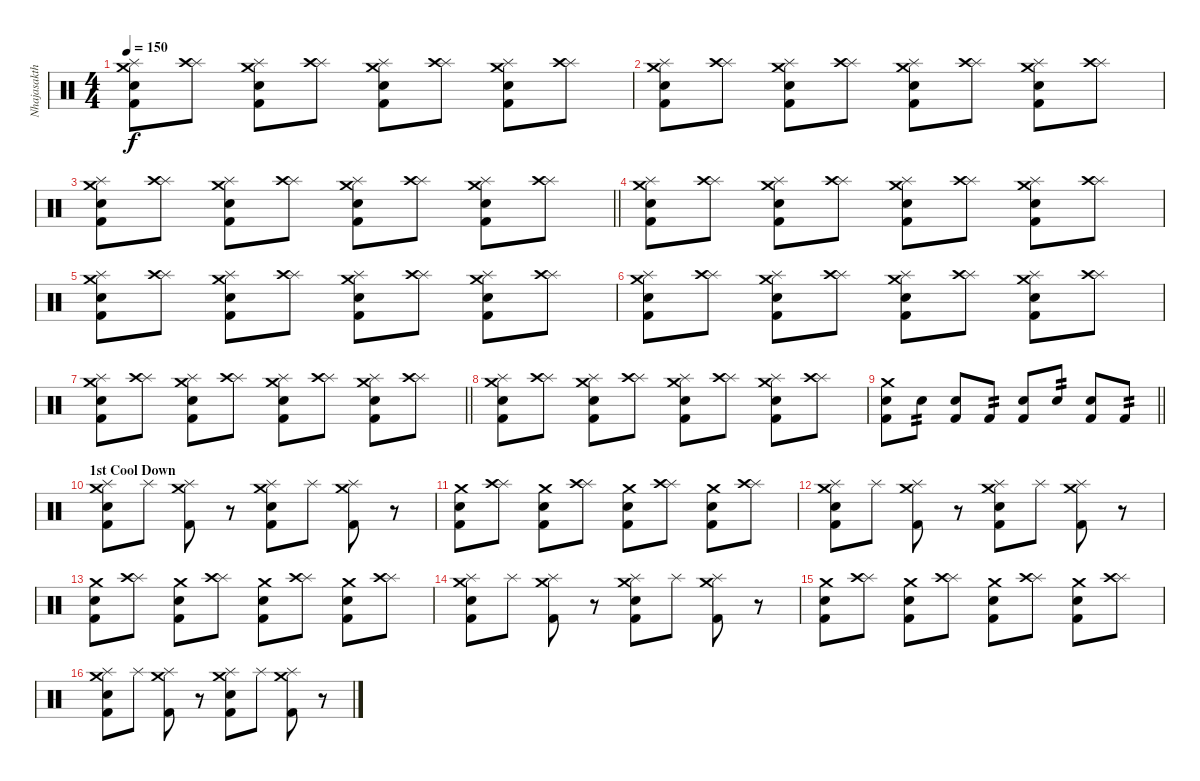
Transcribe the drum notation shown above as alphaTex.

\track ("Nhajasakthee" "Nhajasakth") {instrument percussion}
\staff {score}
\articulation defaults
\ts (4 4)
\tempo 150
\clef neutral
\ks c
("Splash (hit)" "Crash medium (hit)" "Kick (hit) 2" "Electric Snare (hit)").8{dy f} ("Splash (hit)" "Crash high (hit)").8 ("Splash (hit)" "Crash medium (hit)" "Kick (hit) 2" "Electric Snare (hit)").8 ("Splash (hit)" "Crash high (hit)").8 ("Splash (hit)" "Crash medium (hit)" "Kick (hit) 2" "Electric Snare (hit)").8 ("Splash (hit)" "Crash high (hit)").8 ("Splash (hit)" "Crash medium (hit)" "Kick (hit) 2" "Electric Snare (hit)").8 ("Splash (hit)" "Crash high (hit)").8 |
("Splash (hit)" "Crash medium (hit)" "Kick (hit) 2" "Electric Snare (hit)").8 ("Splash (hit)" "Crash high (hit)").8 ("Splash (hit)" "Crash medium (hit)" "Kick (hit) 2" "Electric Snare (hit)").8 ("Splash (hit)" "Crash high (hit)").8 ("Splash (hit)" "Crash medium (hit)" "Kick (hit) 2" "Electric Snare (hit)").8 ("Splash (hit)" "Crash high (hit)").8 ("Splash (hit)" "Crash medium (hit)" "Kick (hit) 2" "Electric Snare (hit)").8 ("Splash (hit)" "Crash high (hit)").8 |
\barLineRight lightlight
("Splash (hit)" "Crash medium (hit)" "Kick (hit) 2" "Electric Snare (hit)").8 ("Splash (hit)" "Crash high (hit)").8 ("Splash (hit)" "Crash medium (hit)" "Kick (hit) 2" "Electric Snare (hit)").8 ("Splash (hit)" "Crash high (hit)").8 ("Splash (hit)" "Crash medium (hit)" "Kick (hit) 2" "Electric Snare (hit)").8 ("Splash (hit)" "Crash high (hit)").8 ("Splash (hit)" "Crash medium (hit)" "Kick (hit) 2" "Electric Snare (hit)").8 ("Splash (hit)" "Crash high (hit)").8 |
("Splash (hit)" "Crash medium (hit)" "Kick (hit) 2" "Electric Snare (hit)").8 ("Splash (hit)" "Crash high (hit)").8 ("Splash (hit)" "Crash medium (hit)" "Kick (hit) 2" "Electric Snare (hit)").8 ("Splash (hit)" "Crash high (hit)").8 ("Splash (hit)" "Crash medium (hit)" "Kick (hit) 2" "Electric Snare (hit)").8 ("Splash (hit)" "Crash high (hit)").8 ("Splash (hit)" "Crash medium (hit)" "Kick (hit) 2" "Electric Snare (hit)").8 ("Splash (hit)" "Crash high (hit)").8 |
("Splash (hit)" "Crash medium (hit)" "Kick (hit) 2" "Electric Snare (hit)").8 ("Splash (hit)" "Crash high (hit)").8 ("Splash (hit)" "Crash medium (hit)" "Kick (hit) 2" "Electric Snare (hit)").8 ("Splash (hit)" "Crash high (hit)").8 ("Splash (hit)" "Crash medium (hit)" "Kick (hit) 2" "Electric Snare (hit)").8 ("Splash (hit)" "Crash high (hit)").8 ("Splash (hit)" "Crash medium (hit)" "Kick (hit) 2" "Electric Snare (hit)").8 ("Splash (hit)" "Crash high (hit)").8 |
("Splash (hit)" "Crash medium (hit)" "Kick (hit) 2" "Electric Snare (hit)").8 ("Splash (hit)" "Crash high (hit)").8 ("Splash (hit)" "Crash medium (hit)" "Kick (hit) 2" "Electric Snare (hit)").8 ("Splash (hit)" "Crash high (hit)").8 ("Splash (hit)" "Crash medium (hit)" "Kick (hit) 2" "Electric Snare (hit)").8 ("Splash (hit)" "Crash high (hit)").8 ("Splash (hit)" "Crash medium (hit)" "Kick (hit) 2" "Electric Snare (hit)").8 ("Splash (hit)" "Crash high (hit)").8 |
\barLineRight lightlight
("Splash (hit)" "Crash medium (hit)" "Kick (hit) 2" "Electric Snare (hit)").8 ("Splash (hit)" "Crash high (hit)").8 ("Splash (hit)" "Crash medium (hit)" "Kick (hit) 2" "Electric Snare (hit)").8 ("Splash (hit)" "Crash high (hit)").8 ("Splash (hit)" "Crash medium (hit)" "Kick (hit) 2" "Electric Snare (hit)").8 ("Splash (hit)" "Crash high (hit)").8 ("Splash (hit)" "Crash medium (hit)" "Kick (hit) 2" "Electric Snare (hit)").8 ("Splash (hit)" "Crash high (hit)").8 |
("Splash (hit)" "Crash medium (hit)" "Kick (hit) 2" "Electric Snare (hit)").8 ("Splash (hit)" "Crash high (hit)").8 ("Splash (hit)" "Crash medium (hit)" "Kick (hit) 2" "Electric Snare (hit)").8 ("Splash (hit)" "Crash high (hit)").8 ("Splash (hit)" "Crash medium (hit)" "Kick (hit) 2" "Electric Snare (hit)").8 ("Splash (hit)" "Crash high (hit)").8 ("Splash (hit)" "Crash medium (hit)" "Kick (hit) 2" "Electric Snare (hit)").8 ("Splash (hit)" "Crash high (hit)").8 |
\barLineRight lightlight
("Crash medium (hit)" "Kick (hit) 2" "Electric Snare (hit)").8 "Electric Snare (hit)".8{tp 2} ("Kick (hit) 2" "Electric Snare (hit)").8 "Kick (hit) 2".8{tp 2} ("Kick (hit) 2" "Electric Snare (hit)").8 "Electric Snare (hit)".8{tp 2} ("Kick (hit) 2" "Electric Snare (hit)").8 "Kick (hit) 2".8{tp 2} |
\section ("" "1st Cool Down")
("Splash (hit)" "Crash medium (hit)" "Kick (hit) 2" "Electric Snare (hit)").8 "Splash (hit)".8 ("Splash (hit)" "Crash medium (hit)" "Kick (hit) 2").8 r.8 ("Splash (hit)" "Crash medium (hit)" "Kick (hit) 2" "Electric Snare (hit)").8 "Splash (hit)".8 ("Splash (hit)" "Crash medium (hit)" "Kick (hit) 2").8 r.8 |
("Crash medium (hit)" "Kick (hit) 2" "Electric Snare (hit)").8 ("Splash (hit)" "Crash high (hit)").8 ("Crash medium (hit)" "Kick (hit) 2" "Electric Snare (hit)").8 ("Splash (hit)" "Crash high (hit)").8 ("Crash medium (hit)" "Kick (hit) 2" "Electric Snare (hit)").8 ("Splash (hit)" "Crash high (hit)").8 ("Crash medium (hit)" "Kick (hit) 2" "Electric Snare (hit)").8 ("Splash (hit)" "Crash high (hit)").8 |
("Splash (hit)" "Crash medium (hit)" "Kick (hit) 2" "Electric Snare (hit)").8 "Splash (hit)".8 ("Splash (hit)" "Crash medium (hit)" "Kick (hit) 2").8 r.8 ("Splash (hit)" "Crash medium (hit)" "Kick (hit) 2" "Electric Snare (hit)").8 "Splash (hit)".8 ("Splash (hit)" "Crash medium (hit)" "Kick (hit) 2").8 r.8 |
("Crash medium (hit)" "Kick (hit) 2" "Electric Snare (hit)").8 ("Splash (hit)" "Crash high (hit)").8 ("Crash medium (hit)" "Kick (hit) 2" "Electric Snare (hit)").8 ("Splash (hit)" "Crash high (hit)").8 ("Crash medium (hit)" "Kick (hit) 2" "Electric Snare (hit)").8 ("Splash (hit)" "Crash high (hit)").8 ("Crash medium (hit)" "Kick (hit) 2" "Electric Snare (hit)").8 ("Splash (hit)" "Crash high (hit)").8 |
("Splash (hit)" "Crash medium (hit)" "Kick (hit) 2" "Electric Snare (hit)").8 "Splash (hit)".8 ("Splash (hit)" "Crash medium (hit)" "Kick (hit) 2").8 r.8 ("Splash (hit)" "Crash medium (hit)" "Kick (hit) 2" "Electric Snare (hit)").8 "Splash (hit)".8 ("Splash (hit)" "Crash medium (hit)" "Kick (hit) 2").8 r.8 |
("Crash medium (hit)" "Kick (hit) 2" "Electric Snare (hit)").8 ("Splash (hit)" "Crash high (hit)").8 ("Crash medium (hit)" "Kick (hit) 2" "Electric Snare (hit)").8 ("Splash (hit)" "Crash high (hit)").8 ("Crash medium (hit)" "Kick (hit) 2" "Electric Snare (hit)").8 ("Splash (hit)" "Crash high (hit)").8 ("Crash medium (hit)" "Kick (hit) 2" "Electric Snare (hit)").8 ("Splash (hit)" "Crash high (hit)").8 |
("Splash (hit)" "Crash medium (hit)" "Kick (hit) 2" "Electric Snare (hit)").8 "Splash (hit)".8 ("Splash (hit)" "Crash medium (hit)" "Kick (hit) 2").8 r.8 ("Splash (hit)" "Crash medium (hit)" "Kick (hit) 2" "Electric Snare (hit)").8 "Splash (hit)".8 ("Splash (hit)" "Crash medium (hit)" "Kick (hit) 2").8 r.8
